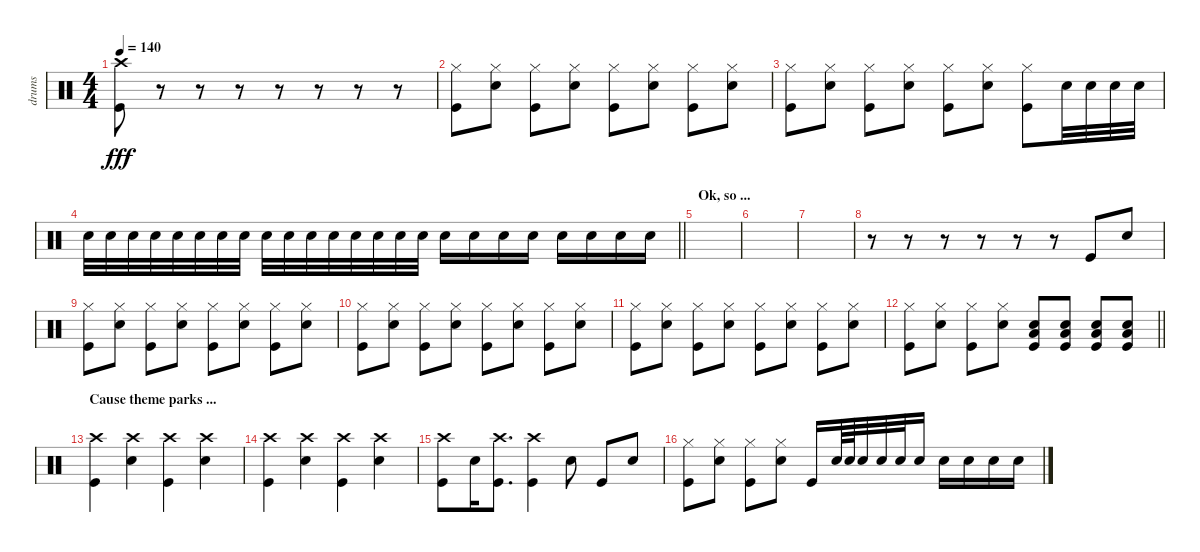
\track ("drums" "drums") {instrument percussion}
\staff {score}
\articulation defaults
\ts (4 4)
\tempo 140
\clef neutral
\ks c
("Crash high (hit)" "Kick (hit)").8{dy fff} r.8 r.8 r.8 r.8 r.8 r.8 r.8 |
("Hi-Hat (closed)" "Kick (hit)").8 ("Hi-Hat (closed)" "Snare (hit) 2").8 ("Hi-Hat (closed)" "Kick (hit)").8 ("Hi-Hat (closed)" "Snare (hit) 2").8 ("Hi-Hat (closed)" "Kick (hit)").8 ("Hi-Hat (closed)" "Snare (hit) 2").8 ("Hi-Hat (closed)" "Kick (hit)").8 ("Hi-Hat (closed)" "Snare (hit) 2").8 |
("Hi-Hat (closed)" "Kick (hit)").8 ("Hi-Hat (closed)" "Snare (hit) 2").8 ("Hi-Hat (closed)" "Kick (hit)").8 ("Hi-Hat (closed)" "Snare (hit) 2").8 ("Hi-Hat (closed)" "Kick (hit)").8 ("Hi-Hat (closed)" "Snare (hit) 2").8 ("Hi-Hat (closed)" "Kick (hit)").8 "Snare (hit) 2".32 "Snare (hit) 2".32 "Snare (hit) 2".32 "Snare (hit) 2".32 |
\barLineRight lightlight "Snare (hit) 2".32 "Snare (hit) 2".32 "Snare (hit) 2".32 "Snare (hit) 2".32 "Snare (hit) 2".32 "Snare (hit) 2".32 "Snare (hit) 2".32 "Snare (hit) 2".32 "Snare (hit) 2".32 "Snare (hit) 2".32 "Snare (hit) 2".32 "Snare (hit) 2".32 "Snare (hit) 2".32 "Snare (hit) 2".32 "Snare (hit) 2".32 "Snare (hit) 2".32 "Snare (hit) 2".16 "Snare (hit) 2".16 "Snare (hit) 2".16 "Snare (hit) 2".16 "Snare (hit) 2".16 "Snare (hit) 2".16 "Snare (hit) 2".16 "Snare (hit) 2".16
|
\section ("" "Ok, so ...")
|
|
|
r.8 r.8 r.8 r.8 r.8 r.8 "Kick (hit)".8 "Snare (hit) 2".8 |
("Hi-Hat (closed)" "Kick (hit)").8 ("Hi-Hat (closed)" "Snare (hit) 2").8 ("Hi-Hat (closed)" "Kick (hit)").8 ("Hi-Hat (closed)" "Snare (hit) 2").8 ("Hi-Hat (closed)" "Kick (hit)").8 ("Hi-Hat (closed)" "Snare (hit) 2").8 ("Hi-Hat (closed)" "Kick (hit)").8 ("Hi-Hat (closed)" "Snare (hit) 2").8 |
("Hi-Hat (closed)" "Kick (hit)").8 ("Hi-Hat (closed)" "Snare (hit) 2").8 ("Hi-Hat (closed)" "Kick (hit)").8 ("Hi-Hat (closed)" "Snare (hit) 2").8 ("Hi-Hat (closed)" "Kick (hit)").8 ("Hi-Hat (closed)" "Snare (hit) 2").8 ("Hi-Hat (closed)" "Kick (hit)").8 ("Hi-Hat (closed)" "Snare (hit) 2").8 |
("Hi-Hat (closed)" "Kick (hit)").8 ("Hi-Hat (closed)" "Snare (hit) 2").8 ("Hi-Hat (closed)" "Kick (hit)").8 ("Hi-Hat (closed)" "Snare (hit) 2").8 ("Hi-Hat (closed)" "Kick (hit)").8 ("Hi-Hat (closed)" "Snare (hit) 2").8 ("Hi-Hat (closed)" "Kick (hit)").8 ("Hi-Hat (closed)" "Snare (hit) 2").8 |
\barLineRight lightlight
("Hi-Hat (closed)" "Kick (hit)").8 ("Hi-Hat (closed)" "Snare (hit) 2").8 ("Hi-Hat (closed)" "Kick (hit)").8 ("Hi-Hat (closed)" "Snare (hit) 2").8 ("Snare (hit) 2" "Low Tom (hit)" "Kick (hit)").8 ("Snare (hit) 2" "Low Tom (hit)" "Kick (hit)").8 ("Snare (hit) 2" "Low Tom (hit)" "Kick (hit)").8 ("Snare (hit) 2" "Low Tom (hit)" "Kick (hit)").8 |
\section ("" "Cause theme parks ...")
("Crash high (hit)" "Kick (hit)").4 ("Crash high (hit)" "Snare (hit) 2").4 ("Crash high (hit)" "Kick (hit)").4 ("Crash high (hit)" "Snare (hit) 2").4 |
("Crash high (hit)" "Kick (hit)").4 ("Crash high (hit)" "Snare (hit) 2").4 ("Crash high (hit)" "Kick (hit)").4 ("Crash high (hit)" "Snare (hit) 2").4 |
("Crash high (hit)" "Kick (hit)").8 "Snare (hit) 2".16 ("Crash high (hit)" "Kick (hit)").8{d} ("Crash high (hit)" "Kick (hit)").4 "Snare (hit) 2".8 "Kick (hit)".8 "Snare (hit) 2".8 |
("Hi-Hat (closed)" "Kick (hit)").8 ("Hi-Hat (closed)" "Snare (hit) 2").8 ("Hi-Hat (closed)" "Kick (hit)").8 ("Hi-Hat (closed)" "Snare (hit) 2").8 "Kick (hit)".16 "Snare (hit) 2".64 "Snare (hit) 2".64 "Snare (hit) 2".32 "Snare (hit) 2".32 "Snare (hit) 2".32 "Snare (hit) 2".16 "Snare (hit) 2".16 "Snare (hit) 2".16 "Snare (hit) 2".16 "Snare (hit) 2".16
